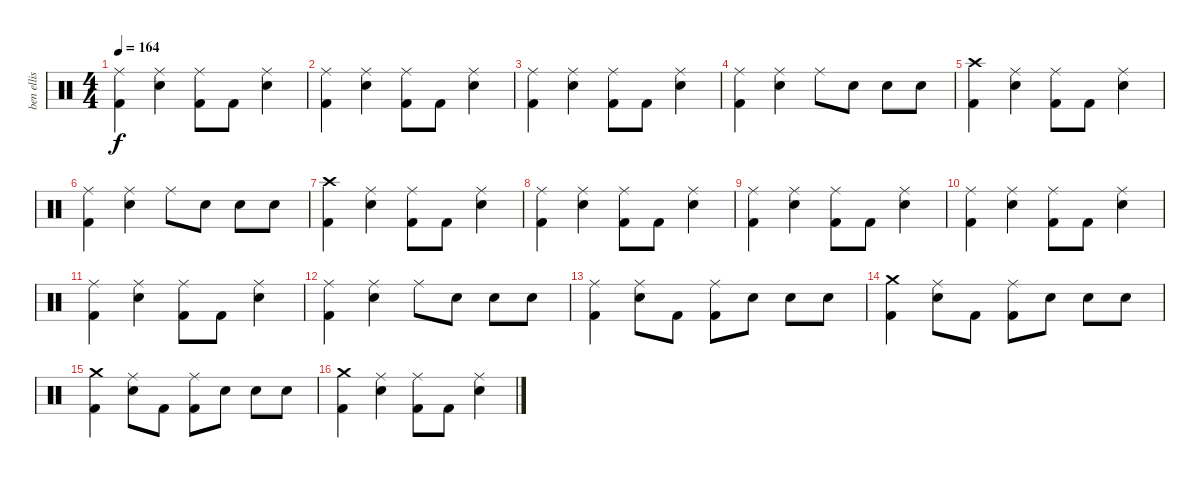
\track ("ben ellis" "ben ellis") {instrument percussion}
\staff {score}
\articulation defaults
\ts (4 4)
\tempo 164
\clef neutral
\ks c
("Ride (middle)" "Kick (hit) 2").4{dy f} ("Ride (middle)" "Electric Snare (hit)").4 ("Ride (middle)" "Kick (hit) 2").8 "Kick (hit) 2".8 ("Ride (middle)" "Electric Snare (hit)").4 |
("Ride (middle)" "Kick (hit) 2").4 ("Ride (middle)" "Electric Snare (hit)").4 ("Ride (middle)" "Kick (hit) 2").8 "Kick (hit) 2".8 ("Ride (middle)" "Electric Snare (hit)").4 |
("Ride (middle)" "Kick (hit) 2").4 ("Ride (middle)" "Electric Snare (hit)").4 ("Ride (middle)" "Kick (hit) 2").8 "Kick (hit) 2".8 ("Ride (middle)" "Electric Snare (hit)").4 |
("Ride (middle)" "Kick (hit) 2").4 ("Ride (middle)" "Electric Snare (hit)").4 "Ride (middle)".8 "Electric Snare (hit)".8 "Electric Snare (hit)".8 "Electric Snare (hit)".8 |
("Crash high (hit)" "Kick (hit) 2").4 ("Ride (middle)" "Electric Snare (hit)").4 ("Ride (middle)" "Kick (hit) 2").8 "Kick (hit) 2".8 ("Ride (middle)" "Electric Snare (hit)").4 |
("Ride (middle)" "Kick (hit) 2").4 ("Ride (middle)" "Electric Snare (hit)").4 "Ride (middle)".8 "Electric Snare (hit)".8 "Electric Snare (hit)".8 "Electric Snare (hit)".8 |
("Crash high (hit)" "Kick (hit) 2").4 ("Ride (middle)" "Electric Snare (hit)").4 ("Ride (middle)" "Kick (hit) 2").8 "Kick (hit) 2".8 ("Ride (middle)" "Electric Snare (hit)").4 |
("Ride (middle)" "Kick (hit) 2").4 ("Ride (middle)" "Electric Snare (hit)").4 ("Ride (middle)" "Kick (hit) 2").8 "Kick (hit) 2".8 ("Ride (middle)" "Electric Snare (hit)").4 |
("Ride (middle)" "Kick (hit) 2").4 ("Ride (middle)" "Electric Snare (hit)").4 ("Ride (middle)" "Kick (hit) 2").8 "Kick (hit) 2".8 ("Ride (middle)" "Electric Snare (hit)").4 |
("Ride (middle)" "Kick (hit) 2").4 ("Ride (middle)" "Electric Snare (hit)").4 ("Ride (middle)" "Kick (hit) 2").8 "Kick (hit) 2".8 ("Ride (middle)" "Electric Snare (hit)").4 |
("Ride (middle)" "Kick (hit) 2").4 ("Ride (middle)" "Electric Snare (hit)").4 ("Ride (middle)" "Kick (hit) 2").8 "Kick (hit) 2".8 ("Ride (middle)" "Electric Snare (hit)").4 |
("Ride (middle)" "Kick (hit) 2").4 ("Ride (middle)" "Electric Snare (hit)").4 "Ride (middle)".8 "Electric Snare (hit)".8 "Electric Snare (hit)".8 "Electric Snare (hit)".8 |
("Ride (middle)" "Kick (hit) 2").4 ("Ride (middle)" "Electric Snare (hit)").8 "Kick (hit) 2".8 ("Ride (middle)" "Kick (hit) 2").8 "Electric Snare (hit)".8 "Electric Snare (hit)".8 "Electric Snare (hit)".8 |
("Crash medium (hit)" "Kick (hit) 2").4 ("Ride (middle)" "Electric Snare (hit)").8 "Kick (hit) 2".8 ("Ride (middle)" "Kick (hit) 2").8 "Electric Snare (hit)".8 "Electric Snare (hit)".8 "Electric Snare (hit)".8 |
("Crash medium (hit)" "Kick (hit) 2").4 ("Ride (middle)" "Electric Snare (hit)").8 "Kick (hit) 2".8 ("Ride (middle)" "Kick (hit) 2").8 "Electric Snare (hit)".8 "Electric Snare (hit)".8 "Electric Snare (hit)".8 |
("Crash medium (hit)" "Kick (hit) 2").4 ("Ride (middle)" "Electric Snare (hit)").4 ("Ride (middle)" "Kick (hit) 2").8 "Kick (hit) 2".8 ("Ride (middle)" "Electric Snare (hit)").4
